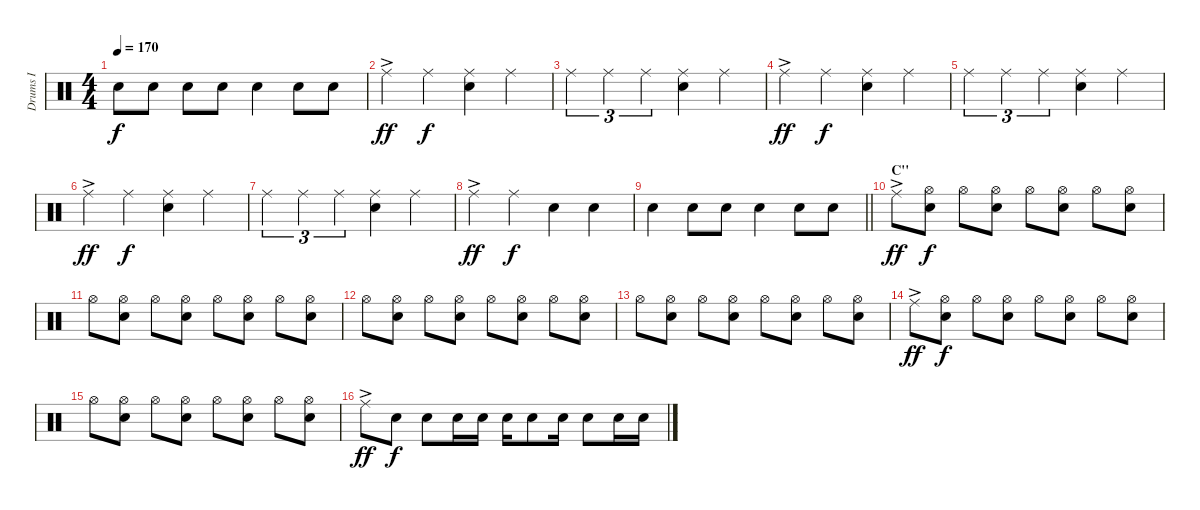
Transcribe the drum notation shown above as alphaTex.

\track ("Drums I" "Drums I") {instrument percussion}
\staff {score}
\articulation defaults
\ts (4 4)
\tempo 170
\clef neutral
\ks c "Snare (hit) 2".8{dy f} "Snare (hit) 2".8 "Snare (hit) 2".8 "Snare (hit) 2".8 "Snare (hit) 2".4 "Snare (hit) 2".8 "Snare (hit) 2".8
|
"Ride (middle)"{ac}.4{dy ff} "Ride (middle)".4{dy f} ("Ride (middle)" "Snare (hit) 2").4 "Ride (middle)".4 |
"Ride (middle)".4{tu (3 2)} "Ride (middle)".4{tu (3 2)} "Ride (middle)".4{tu (3 2)} ("Ride (middle)" "Snare (hit) 2").4 "Ride (middle)".4 |
"Ride (middle)"{ac}.4{dy ff} "Ride (middle)".4{dy f} ("Ride (middle)" "Snare (hit) 2").4 "Ride (middle)".4 |
"Ride (middle)".4{tu (3 2)} "Ride (middle)".4{tu (3 2)} "Ride (middle)".4{tu (3 2)} ("Ride (middle)" "Snare (hit) 2").4 "Ride (middle)".4 |
"Ride (middle)"{ac}.4{dy ff} "Ride (middle)".4{dy f} ("Ride (middle)" "Snare (hit) 2").4 "Ride (middle)".4 |
"Ride (middle)".4{tu (3 2)} "Ride (middle)".4{tu (3 2)} "Ride (middle)".4{tu (3 2)} ("Ride (middle)" "Snare (hit) 2").4 "Ride (middle)".4 |
"Ride (middle)"{ac}.4{dy ff} "Ride (middle)".4{dy f} "Snare (hit) 2".4 "Snare (hit) 2".4 |
\barLineRight lightlight "Snare (hit) 2".4 "Snare (hit) 2".8 "Snare (hit) 2".8 "Snare (hit) 2".4 "Snare (hit) 2".8 "Snare (hit) 2".8
|
\section ("" "C''")
"Ride (middle)"{ac}.8{dy ff} ("Hi-Hat (open)" "Snare (hit) 2").8{dy f} "Hi-Hat (open)".8 ("Hi-Hat (open)" "Snare (hit) 2").8 "Hi-Hat (open)".8 ("Hi-Hat (open)" "Snare (hit) 2").8 "Hi-Hat (open)".8 ("Hi-Hat (open)" "Snare (hit) 2").8 |
"Hi-Hat (open)".8 ("Hi-Hat (open)" "Snare (hit) 2").8 "Hi-Hat (open)".8 ("Hi-Hat (open)" "Snare (hit) 2").8 "Hi-Hat (open)".8 ("Hi-Hat (open)" "Snare (hit) 2").8 "Hi-Hat (open)".8 ("Hi-Hat (open)" "Snare (hit) 2").8 |
"Hi-Hat (open)".8 ("Hi-Hat (open)" "Snare (hit) 2").8 "Hi-Hat (open)".8 ("Hi-Hat (open)" "Snare (hit) 2").8 "Hi-Hat (open)".8 ("Hi-Hat (open)" "Snare (hit) 2").8 "Hi-Hat (open)".8 ("Hi-Hat (open)" "Snare (hit) 2").8 |
"Hi-Hat (open)".8 ("Hi-Hat (open)" "Snare (hit) 2").8 "Hi-Hat (open)".8 ("Hi-Hat (open)" "Snare (hit) 2").8 "Hi-Hat (open)".8 ("Hi-Hat (open)" "Snare (hit) 2").8 "Hi-Hat (open)".8 ("Hi-Hat (open)" "Snare (hit) 2").8 |
"Ride (middle)"{ac}.8{dy ff} ("Hi-Hat (open)" "Snare (hit) 2").8{dy f} "Hi-Hat (open)".8 ("Hi-Hat (open)" "Snare (hit) 2").8 "Hi-Hat (open)".8 ("Hi-Hat (open)" "Snare (hit) 2").8 "Hi-Hat (open)".8 ("Hi-Hat (open)" "Snare (hit) 2").8 |
"Hi-Hat (open)".8 ("Hi-Hat (open)" "Snare (hit) 2").8 "Hi-Hat (open)".8 ("Hi-Hat (open)" "Snare (hit) 2").8 "Hi-Hat (open)".8 ("Hi-Hat (open)" "Snare (hit) 2").8 "Hi-Hat (open)".8 ("Hi-Hat (open)" "Snare (hit) 2").8 |
"Ride (middle)"{ac}.8{dy ff} "Snare (hit) 2".8{dy f} "Snare (hit) 2".8 "Snare (hit) 2".16 "Snare (hit) 2".16 "Snare (hit) 2".16 "Snare (hit) 2".8 "Snare (hit) 2".16 "Snare (hit) 2".8 "Snare (hit) 2".16 "Snare (hit) 2".16
